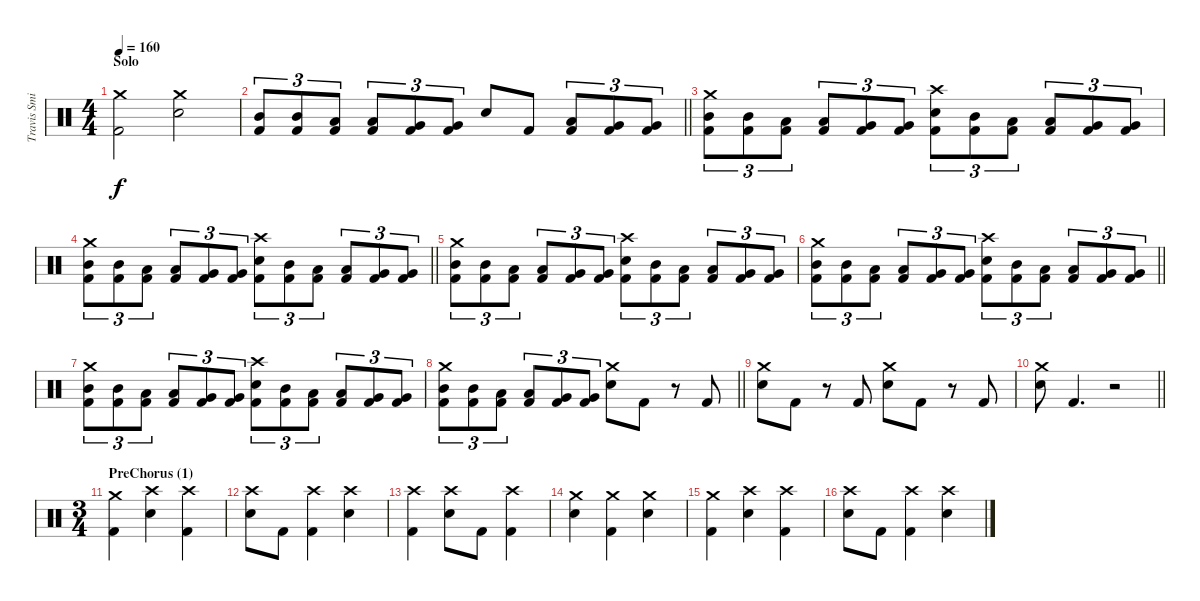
\track ("Travis Smith" "Travis Smi") {instrument percussion}
\staff {score}
\articulation defaults
\ts (4 4)
\section ("" "Solo")
\tempo 160
\clef neutral
\ks c
("Crash medium (hit)" "Kick (hit) 2").2{dy f} ("Crash medium (hit)" "Electric Snare (hit)").2 |
\barLineRight lightlight
("Mid Tom (hit)" "Kick (hit) 2").8{tu (3 2)} ("Mid Tom (hit)" "Kick (hit) 2").8{tu (3 2)} ("Low Tom (hit)" "Kick (hit) 2").8{tu (3 2)} ("Low Tom (hit)" "Kick (hit) 2").8{tu (3 2)} ("Very Low Tom (hit)" "Kick (hit) 2").8{tu (3 2)} ("Very Low Tom (hit)" "Kick (hit) 2").8{tu (3 2)} "Electric Snare (hit)".8 "Kick (hit) 2".8 ("Low Tom (hit)" "Kick (hit) 2").8{tu (3 2)} ("Very Low Tom (hit)" "Kick (hit) 2").8{tu (3 2)} ("Very Low Tom (hit)" "Kick (hit) 2").8{tu (3 2)} |
("Crash medium (hit)" "Mid Tom (hit)" "Kick (hit) 2").8{tu (3 2)} ("Mid Tom (hit)" "Kick (hit) 2").8{tu (3 2)} ("Low Tom (hit)" "Kick (hit) 2").8{tu (3 2)} ("Low Tom (hit)" "Kick (hit) 2").8{tu (3 2)} ("Very Low Tom (hit)" "Kick (hit) 2").8{tu (3 2)} ("Very Low Tom (hit)" "Kick (hit) 2").8{tu (3 2)} ("Crash high (hit)" "Electric Snare (hit)" "Kick (hit) 2").8{tu (3 2)} ("Mid Tom (hit)" "Kick (hit) 2").8{tu (3 2)} ("Low Tom (hit)" "Kick (hit) 2").8{tu (3 2)} ("Low Tom (hit)" "Kick (hit) 2").8{tu (3 2)} ("Very Low Tom (hit)" "Kick (hit) 2").8{tu (3 2)} ("Very Low Tom (hit)" "Kick (hit) 2").8{tu (3 2)} |
\barLineRight lightlight
("Crash medium (hit)" "Mid Tom (hit)" "Kick (hit) 2").8{tu (3 2)} ("Mid Tom (hit)" "Kick (hit) 2").8{tu (3 2)} ("Low Tom (hit)" "Kick (hit) 2").8{tu (3 2)} ("Low Tom (hit)" "Kick (hit) 2").8{tu (3 2)} ("Very Low Tom (hit)" "Kick (hit) 2").8{tu (3 2)} ("Very Low Tom (hit)" "Kick (hit) 2").8{tu (3 2)} ("Crash high (hit)" "Electric Snare (hit)" "Kick (hit) 2").8{tu (3 2)} ("Mid Tom (hit)" "Kick (hit) 2").8{tu (3 2)} ("Low Tom (hit)" "Kick (hit) 2").8{tu (3 2)} ("Low Tom (hit)" "Kick (hit) 2").8{tu (3 2)} ("Very Low Tom (hit)" "Kick (hit) 2").8{tu (3 2)} ("Very Low Tom (hit)" "Kick (hit) 2").8{tu (3 2)} |
("Crash medium (hit)" "Mid Tom (hit)" "Kick (hit) 2").8{tu (3 2)} ("Mid Tom (hit)" "Kick (hit) 2").8{tu (3 2)} ("Low Tom (hit)" "Kick (hit) 2").8{tu (3 2)} ("Low Tom (hit)" "Kick (hit) 2").8{tu (3 2)} ("Very Low Tom (hit)" "Kick (hit) 2").8{tu (3 2)} ("Very Low Tom (hit)" "Kick (hit) 2").8{tu (3 2)} ("Crash high (hit)" "Electric Snare (hit)" "Kick (hit) 2").8{tu (3 2)} ("Mid Tom (hit)" "Kick (hit) 2").8{tu (3 2)} ("Low Tom (hit)" "Kick (hit) 2").8{tu (3 2)} ("Low Tom (hit)" "Kick (hit) 2").8{tu (3 2)} ("Very Low Tom (hit)" "Kick (hit) 2").8{tu (3 2)} ("Very Low Tom (hit)" "Kick (hit) 2").8{tu (3 2)} |
\barLineRight lightlight
("Crash medium (hit)" "Mid Tom (hit)" "Kick (hit) 2").8{tu (3 2)} ("Mid Tom (hit)" "Kick (hit) 2").8{tu (3 2)} ("Low Tom (hit)" "Kick (hit) 2").8{tu (3 2)} ("Low Tom (hit)" "Kick (hit) 2").8{tu (3 2)} ("Very Low Tom (hit)" "Kick (hit) 2").8{tu (3 2)} ("Very Low Tom (hit)" "Kick (hit) 2").8{tu (3 2)} ("Crash high (hit)" "Electric Snare (hit)" "Kick (hit) 2").8{tu (3 2)} ("Mid Tom (hit)" "Kick (hit) 2").8{tu (3 2)} ("Low Tom (hit)" "Kick (hit) 2").8{tu (3 2)} ("Low Tom (hit)" "Kick (hit) 2").8{tu (3 2)} ("Very Low Tom (hit)" "Kick (hit) 2").8{tu (3 2)} ("Very Low Tom (hit)" "Kick (hit) 2").8{tu (3 2)} |
("Crash medium (hit)" "Mid Tom (hit)" "Kick (hit) 2").8{tu (3 2)} ("Mid Tom (hit)" "Kick (hit) 2").8{tu (3 2)} ("Low Tom (hit)" "Kick (hit) 2").8{tu (3 2)} ("Low Tom (hit)" "Kick (hit) 2").8{tu (3 2)} ("Very Low Tom (hit)" "Kick (hit) 2").8{tu (3 2)} ("Very Low Tom (hit)" "Kick (hit) 2").8{tu (3 2)} ("Crash high (hit)" "Electric Snare (hit)" "Kick (hit) 2").8{tu (3 2)} ("Mid Tom (hit)" "Kick (hit) 2").8{tu (3 2)} ("Low Tom (hit)" "Kick (hit) 2").8{tu (3 2)} ("Low Tom (hit)" "Kick (hit) 2").8{tu (3 2)} ("Very Low Tom (hit)" "Kick (hit) 2").8{tu (3 2)} ("Very Low Tom (hit)" "Kick (hit) 2").8{tu (3 2)} |
\barLineRight lightlight
("Crash medium (hit)" "Mid Tom (hit)" "Kick (hit) 2").8{tu (3 2)} ("Mid Tom (hit)" "Kick (hit) 2").8{tu (3 2)} ("Low Tom (hit)" "Kick (hit) 2").8{tu (3 2)} ("Low Tom (hit)" "Kick (hit) 2").8{tu (3 2)} ("Very Low Tom (hit)" "Kick (hit) 2").8{tu (3 2)} ("Very Low Tom (hit)" "Kick (hit) 2").8{tu (3 2)} ("Crash medium (hit)" "Electric Snare (hit)").8 "Kick (hit) 2".8 r.8 "Kick (hit) 2".8 |
("Crash medium (hit)" "Electric Snare (hit)").8 "Kick (hit) 2".8 r.8 "Kick (hit) 2".8 ("Crash medium (hit)" "Electric Snare (hit)").8 "Kick (hit) 2".8 r.8 "Kick (hit) 2".8 |
\barLineRight lightlight
("Crash medium (hit)" "Electric Snare (hit)").8 "Kick (hit) 2".4{d} r.2 |
\ts (3 4)
\section ("" "PreChorus (1)")
("Crash medium (hit)" "Kick (hit) 2").4 ("Crash high (hit)" "Electric Snare (hit)").4 ("Crash high (hit)" "Kick (hit) 2").4 |
("Crash high (hit)" "Electric Snare (hit)").8 "Kick (hit) 2".8 ("Crash high (hit)" "Kick (hit) 2").4 ("Crash high (hit)" "Electric Snare (hit)").4 |
("Crash high (hit)" "Kick (hit) 2").4 ("Crash high (hit)" "Electric Snare (hit)").8 "Kick (hit) 2".8 ("Crash high (hit)" "Kick (hit) 2").4 |
("Crash medium (hit)" "Electric Snare (hit)").4 ("Crash medium (hit)" "Kick (hit) 2").4 ("Crash medium (hit)" "Electric Snare (hit)").4 |
("Crash medium (hit)" "Kick (hit) 2").4 ("Crash high (hit)" "Electric Snare (hit)").4 ("Crash high (hit)" "Kick (hit) 2").4 |
("Crash high (hit)" "Electric Snare (hit)").8 "Kick (hit) 2".8 ("Crash high (hit)" "Kick (hit) 2").4 ("Crash high (hit)" "Electric Snare (hit)").4
